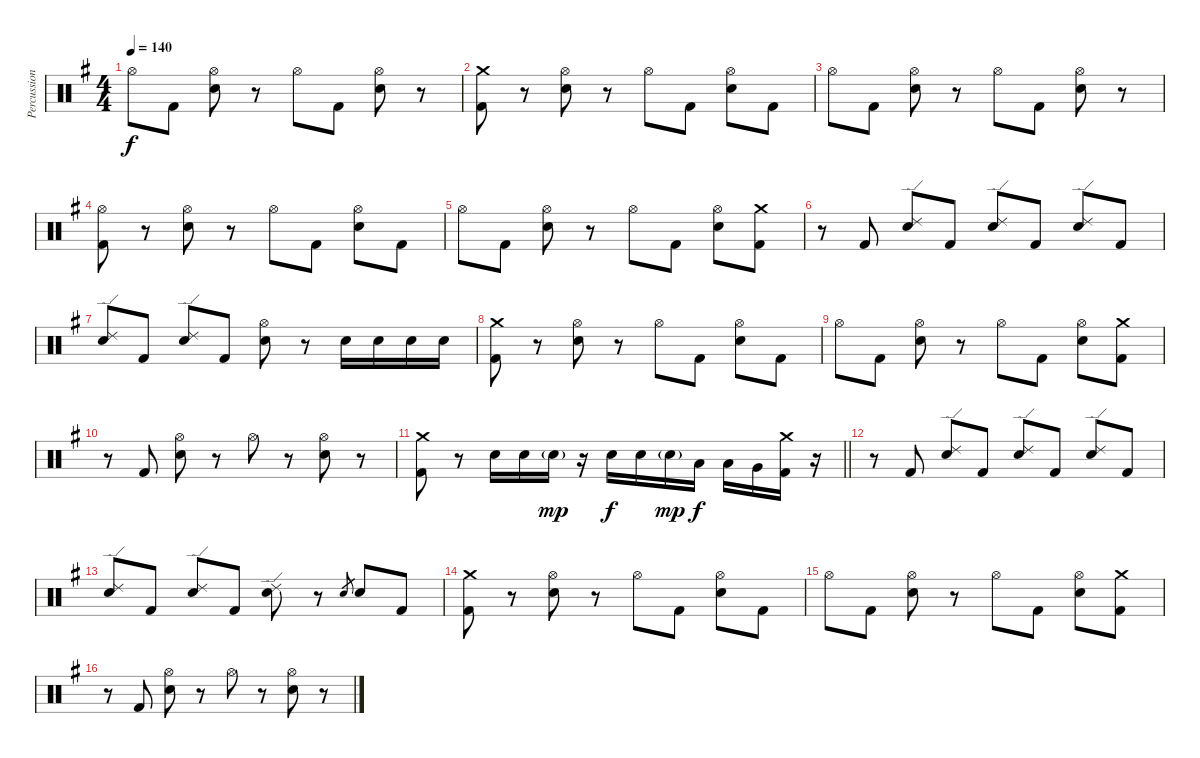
\track ("Percussion" "Percussion") {instrument percussion}
\staff {score}
\articulation defaults
\ts (4 4)
\tempo 140
\clef neutral
\ks g "Hi-Hat (open)".8{dy f} "Kick (hit) 2".8
("Hi-Hat (open)" "Electric Snare (hit)").8 r.8 "Hi-Hat (open)".8 "Kick (hit) 2".8 ("Hi-Hat (open)" "Electric Snare (hit)").8 r.8 |
("Crash medium (hit)" "Kick (hit) 2").8 r.8 ("Hi-Hat (open)" "Electric Snare (hit)").8 r.8 "Hi-Hat (open)".8 "Kick (hit) 2".8 ("Hi-Hat (open)" "Electric Snare (hit)").8 "Kick (hit) 2".8 |
"Hi-Hat (open)".8 "Kick (hit) 2".8 ("Hi-Hat (open)" "Electric Snare (hit)").8 r.8 "Hi-Hat (open)".8 "Kick (hit) 2".8 ("Hi-Hat (open)" "Electric Snare (hit)").8 r.8 |
("Hi-Hat (open)" "Kick (hit) 2").8 r.8 ("Hi-Hat (open)" "Electric Snare (hit)").8 r.8 "Hi-Hat (open)".8 "Kick (hit) 2".8 ("Hi-Hat (open)" "Electric Snare (hit)").8 "Kick (hit) 2".8 |
"Hi-Hat (open)".8 "Kick (hit) 2".8 ("Hi-Hat (open)" "Electric Snare (hit)").8 r.8 "Hi-Hat (open)".8 "Kick (hit) 2".8 ("Hi-Hat (open)" "Electric Snare (hit)").8 ("Crash medium (hit)" "Kick (hit) 2").8 |
r.8 "Kick (hit) 2".8 ("Ride (edge) 2" "Electric Snare (hit)").8 "Kick (hit) 2".8 ("Ride (edge) 2" "Electric Snare (hit)").8 "Kick (hit) 2".8 ("Ride (edge) 2" "Electric Snare (hit)").8 "Kick (hit) 2".8 |
("Ride (edge) 2" "Electric Snare (hit)").8 "Kick (hit) 2".8 ("Ride (edge) 2" "Electric Snare (hit)").8 "Kick (hit) 2".8 ("Hi-Hat (open)" "Electric Snare (hit)").8 r.8 "Electric Snare (hit)".16 "Electric Snare (hit)".16 "Electric Snare (hit)".16 "Electric Snare (hit)".16 |
("Crash medium (hit)" "Kick (hit) 2").8 r.8 ("Hi-Hat (open)" "Electric Snare (hit)").8 r.8 "Hi-Hat (open)".8 "Kick (hit) 2".8 ("Hi-Hat (open)" "Electric Snare (hit)").8 "Kick (hit) 2".8 |
"Hi-Hat (open)".8 "Kick (hit) 2".8 ("Hi-Hat (open)" "Electric Snare (hit)").8 r.8 "Hi-Hat (open)".8 "Kick (hit) 2".8 ("Hi-Hat (open)" "Electric Snare (hit)").8 ("Crash medium (hit)" "Kick (hit) 2").8 |
r.8 "Kick (hit) 2".8 ("Hi-Hat (open)" "Electric Snare (hit)").8 r.8 "Hi-Hat (open)".8 r.8 ("Hi-Hat (open)" "Electric Snare (hit)").8 r.8 |
\barLineRight lightlight
("Crash medium (hit)" "Kick (hit) 2").8 r.8 "Electric Snare (hit)".16 "Electric Snare (hit)".16 "Electric Snare (hit)"{g}.16{dy mp} r.16 "Electric Snare (hit)".16{dy f} "Electric Snare (hit)".16 "Electric Snare (hit)"{g}.16{dy mp} "Low Tom (hit)".16{dy f} "Low Tom (hit)".16 "Very Low Tom (hit)".16 ("Crash medium (hit)" "Kick (hit) 2").16 r.16 |
r.8 "Kick (hit) 2".8 ("Ride (edge) 2" "Electric Snare (hit)").8 "Kick (hit) 2".8 ("Ride (edge) 2" "Electric Snare (hit)").8 "Kick (hit) 2".8 ("Ride (edge) 2" "Electric Snare (hit)").8 "Kick (hit) 2".8 |
("Ride (edge) 2" "Electric Snare (hit)").8 "Kick (hit) 2".8 ("Ride (edge) 2" "Electric Snare (hit)").8 "Kick (hit) 2".8 ("Ride (edge) 2" "Electric Snare (hit)").8 r.8 "Electric Snare (hit)".8{gr} "Electric Snare (hit)".8 "Kick (hit) 2".8 |
("Crash medium (hit)" "Kick (hit) 2").8 r.8 ("Hi-Hat (open)" "Electric Snare (hit)").8 r.8 "Hi-Hat (open)".8 "Kick (hit) 2".8 ("Hi-Hat (open)" "Electric Snare (hit)").8 "Kick (hit) 2".8 |
"Hi-Hat (open)".8 "Kick (hit) 2".8 ("Hi-Hat (open)" "Electric Snare (hit)").8 r.8 "Hi-Hat (open)".8 "Kick (hit) 2".8 ("Hi-Hat (open)" "Electric Snare (hit)").8 ("Crash medium (hit)" "Kick (hit) 2").8 |
r.8 "Kick (hit) 2".8 ("Hi-Hat (open)" "Electric Snare (hit)").8 r.8 "Hi-Hat (open)".8 r.8 ("Hi-Hat (open)" "Electric Snare (hit)").8 r.8
